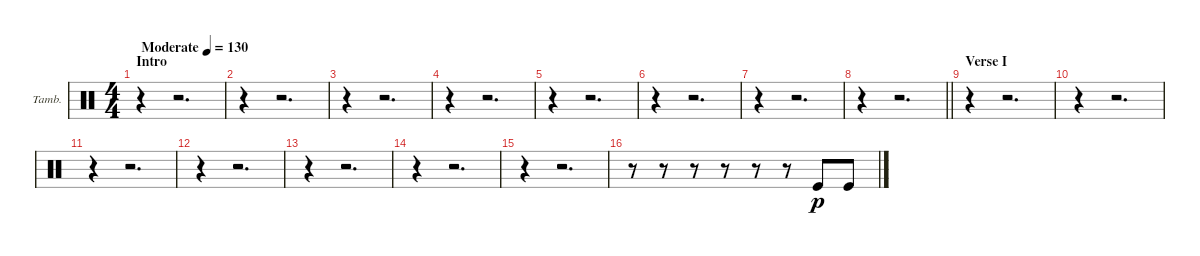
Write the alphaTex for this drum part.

\bracketExtendMode groupsimilarinstruments
\firstSystemTrackNameOrientation horizontal
\otherSystemsTrackNameOrientation horizontal
\track ("Tambourine" "Tamb.") {instrument percussion}
\staff {score}
\articulation defaults
\ts (4 4)
\beaming (8 2 2 2 2)
\section ("" "Intro")
\tempo (130 "Moderate")
\clef neutral
\ks c
r.4{dy p} r.2{d} |
r.4 r.2{d} |
r.4 r.2{d} |
r.4 r.2{d} |
r.4 r.2{d} |
r.4 r.2{d} |
r.4 r.2{d} |
\barLineRight lightlight
r.4 r.2{d} |
\section ("" "Verse I")
r.4 r.2{d} |
r.4 r.2{d} |
r.4 r.2{d} |
r.4 r.2{d} |
r.4 r.2{d} |
r.4 r.2{d} |
r.4 r.2{d} |
r.8 r.8 r.8 r.8 r.8 r.8 "Kick (hit)".8 "Kick (hit)".8
